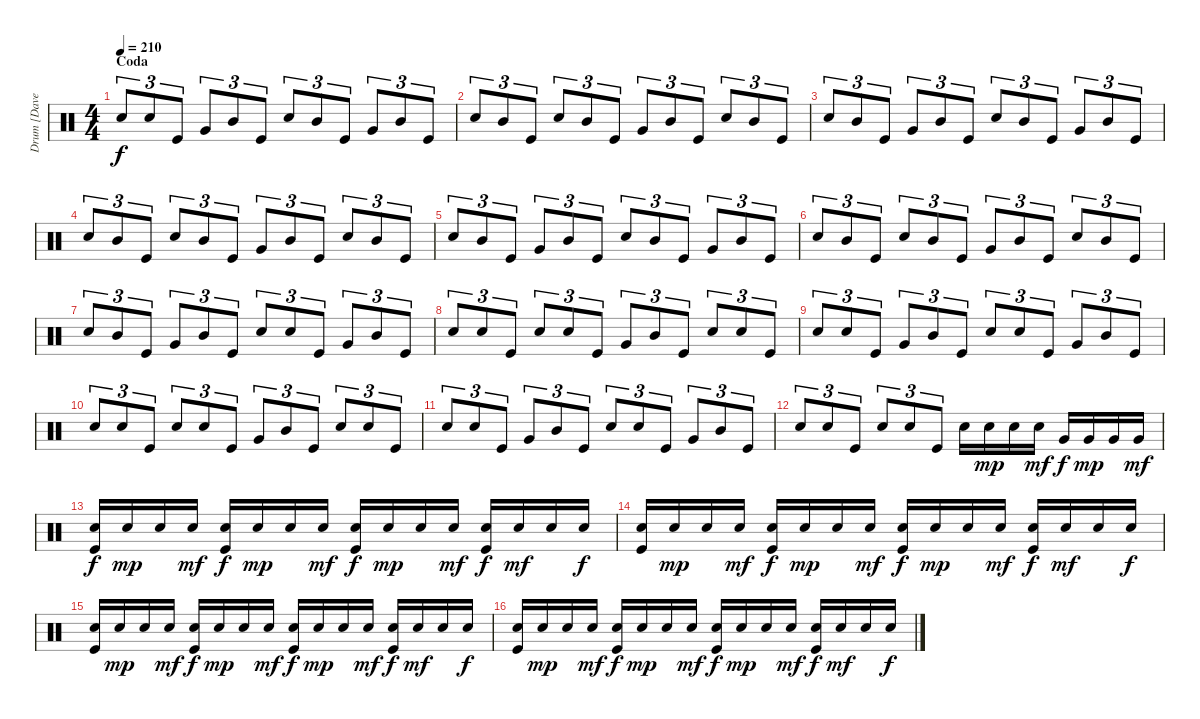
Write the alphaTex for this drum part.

\track ("Drum [Dave Grohl]" "Drum [Dave") {instrument percussion bank 84}
\staff {score}
\articulation defaults
\ts (4 4)
\section ("" "Coda")
\tempo 210
\clef neutral
\ks c "Electric Snare (hit)".8{tu (3 2) dy f} "Electric Snare (hit)".8{tu (3 2)} "Kick (hit)".8{tu (3 2)} "Very Low Tom (hit)".8{tu (3 2)} "Mid Tom (hit)".8{tu (3 2)} "Kick (hit)".8{tu (3 2)} "Electric Snare (hit)".8{tu (3 2)} "Mid Tom (hit)".8{tu (3 2)} "Kick (hit)".8{tu (3 2)} "Very Low Tom (hit)".8{tu (3 2)} "Mid Tom (hit)".8{tu (3 2)} "Kick (hit)".8{tu (3 2)}
|
"Electric Snare (hit)".8{tu (3 2)} "Mid Tom (hit)".8{tu (3 2)} "Kick (hit)".8{tu (3 2)} "Electric Snare (hit)".8{tu (3 2)} "Mid Tom (hit)".8{tu (3 2)} "Kick (hit)".8{tu (3 2)} "Very Low Tom (hit)".8{tu (3 2)} "Mid Tom (hit)".8{tu (3 2)} "Kick (hit)".8{tu (3 2)} "Electric Snare (hit)".8{tu (3 2)} "Mid Tom (hit)".8{tu (3 2)} "Kick (hit)".8{tu (3 2)} |
"Electric Snare (hit)".8{tu (3 2)} "Mid Tom (hit)".8{tu (3 2)} "Kick (hit)".8{tu (3 2)} "Very Low Tom (hit)".8{tu (3 2)} "Mid Tom (hit)".8{tu (3 2)} "Kick (hit)".8{tu (3 2)} "Electric Snare (hit)".8{tu (3 2)} "Mid Tom (hit)".8{tu (3 2)} "Kick (hit)".8{tu (3 2)} "Very Low Tom (hit)".8{tu (3 2)} "Mid Tom (hit)".8{tu (3 2)} "Kick (hit)".8{tu (3 2)} |
"Electric Snare (hit)".8{tu (3 2)} "Mid Tom (hit)".8{tu (3 2)} "Kick (hit)".8{tu (3 2)} "Electric Snare (hit)".8{tu (3 2)} "Mid Tom (hit)".8{tu (3 2)} "Kick (hit)".8{tu (3 2)} "Very Low Tom (hit)".8{tu (3 2)} "Mid Tom (hit)".8{tu (3 2)} "Kick (hit)".8{tu (3 2)} "Electric Snare (hit)".8{tu (3 2)} "Mid Tom (hit)".8{tu (3 2)} "Kick (hit)".8{tu (3 2)} |
"Electric Snare (hit)".8{tu (3 2)} "Mid Tom (hit)".8{tu (3 2)} "Kick (hit)".8{tu (3 2)} "Very Low Tom (hit)".8{tu (3 2)} "Mid Tom (hit)".8{tu (3 2)} "Kick (hit)".8{tu (3 2)} "Electric Snare (hit)".8{tu (3 2)} "Mid Tom (hit)".8{tu (3 2)} "Kick (hit)".8{tu (3 2)} "Very Low Tom (hit)".8{tu (3 2)} "Mid Tom (hit)".8{tu (3 2)} "Kick (hit)".8{tu (3 2)} |
"Electric Snare (hit)".8{tu (3 2)} "Mid Tom (hit)".8{tu (3 2)} "Kick (hit)".8{tu (3 2)} "Electric Snare (hit)".8{tu (3 2)} "Mid Tom (hit)".8{tu (3 2)} "Kick (hit)".8{tu (3 2)} "Very Low Tom (hit)".8{tu (3 2)} "Mid Tom (hit)".8{tu (3 2)} "Kick (hit)".8{tu (3 2)} "Electric Snare (hit)".8{tu (3 2)} "Mid Tom (hit)".8{tu (3 2)} "Kick (hit)".8{tu (3 2)} |
"Electric Snare (hit)".8{tu (3 2)} "Mid Tom (hit)".8{tu (3 2)} "Kick (hit)".8{tu (3 2)} "Very Low Tom (hit)".8{tu (3 2)} "Mid Tom (hit)".8{tu (3 2)} "Kick (hit)".8{tu (3 2)} "Electric Snare (hit)".8{tu (3 2)} "Electric Snare (hit)".8{tu (3 2)} "Kick (hit)".8{tu (3 2)} "Very Low Tom (hit)".8{tu (3 2)} "Mid Tom (hit)".8{tu (3 2)} "Kick (hit)".8{tu (3 2)} |
"Electric Snare (hit)".8{tu (3 2)} "Electric Snare (hit)".8{tu (3 2)} "Kick (hit)".8{tu (3 2)} "Electric Snare (hit)".8{tu (3 2)} "Electric Snare (hit)".8{tu (3 2)} "Kick (hit)".8{tu (3 2)} "Very Low Tom (hit)".8{tu (3 2)} "Mid Tom (hit)".8{tu (3 2)} "Kick (hit)".8{tu (3 2)} "Electric Snare (hit)".8{tu (3 2)} "Electric Snare (hit)".8{tu (3 2)} "Kick (hit)".8{tu (3 2)} |
"Electric Snare (hit)".8{tu (3 2)} "Electric Snare (hit)".8{tu (3 2)} "Kick (hit)".8{tu (3 2)} "Very Low Tom (hit)".8{tu (3 2)} "Mid Tom (hit)".8{tu (3 2)} "Kick (hit)".8{tu (3 2)} "Electric Snare (hit)".8{tu (3 2)} "Electric Snare (hit)".8{tu (3 2)} "Kick (hit)".8{tu (3 2)} "Very Low Tom (hit)".8{tu (3 2)} "Mid Tom (hit)".8{tu (3 2)} "Kick (hit)".8{tu (3 2)} |
"Electric Snare (hit)".8{tu (3 2)} "Electric Snare (hit)".8{tu (3 2)} "Kick (hit)".8{tu (3 2)} "Electric Snare (hit)".8{tu (3 2)} "Electric Snare (hit)".8{tu (3 2)} "Kick (hit)".8{tu (3 2)} "Very Low Tom (hit)".8{tu (3 2)} "Mid Tom (hit)".8{tu (3 2)} "Kick (hit)".8{tu (3 2)} "Electric Snare (hit)".8{tu (3 2)} "Electric Snare (hit)".8{tu (3 2)} "Kick (hit)".8{tu (3 2)} |
"Electric Snare (hit)".8{tu (3 2)} "Electric Snare (hit)".8{tu (3 2)} "Kick (hit)".8{tu (3 2)} "Very Low Tom (hit)".8{tu (3 2)} "Mid Tom (hit)".8{tu (3 2)} "Kick (hit)".8{tu (3 2)} "Electric Snare (hit)".8{tu (3 2)} "Electric Snare (hit)".8{tu (3 2)} "Kick (hit)".8{tu (3 2)} "Very Low Tom (hit)".8{tu (3 2)} "Mid Tom (hit)".8{tu (3 2)} "Kick (hit)".8{tu (3 2)} |
"Electric Snare (hit)".8{tu (3 2)} "Electric Snare (hit)".8{tu (3 2)} "Kick (hit)".8{tu (3 2)} "Electric Snare (hit)".8{tu (3 2)} "Electric Snare (hit)".8{tu (3 2)} "Kick (hit)".8{tu (3 2)} "Electric Snare (hit)".16 "Electric Snare (hit)".16{dy mp} "Electric Snare (hit)".16 "Electric Snare (hit)".16{dy mf} "Very Low Tom (hit)".16{dy f} "Very Low Tom (hit)".16{dy mp} "Very Low Tom (hit)".16 "Very Low Tom (hit)".16{dy mf} |
("Electric Snare (hit)" "Kick (hit)").16{dy f} "Electric Snare (hit)".16{dy mp} "Electric Snare (hit)".16 "Electric Snare (hit)".16{dy mf} ("Electric Snare (hit)" "Kick (hit)").16{dy f} "Electric Snare (hit)".16{dy mp} "Electric Snare (hit)".16 "Electric Snare (hit)".16{dy mf} ("Electric Snare (hit)" "Kick (hit)").16{dy f} "Electric Snare (hit)".16{dy mp} "Electric Snare (hit)".16 "Electric Snare (hit)".16{dy mf} ("Electric Snare (hit)" "Kick (hit)").16{dy f} "Electric Snare (hit)".16{dy mf} "Electric Snare (hit)".16 "Electric Snare (hit)".16{dy f} |
("Electric Snare (hit)" "Kick (hit)").16 "Electric Snare (hit)".16{dy mp} "Electric Snare (hit)".16 "Electric Snare (hit)".16{dy mf} ("Electric Snare (hit)" "Kick (hit)").16{dy f} "Electric Snare (hit)".16{dy mp} "Electric Snare (hit)".16 "Electric Snare (hit)".16{dy mf} ("Electric Snare (hit)" "Kick (hit)").16{dy f} "Electric Snare (hit)".16{dy mp} "Electric Snare (hit)".16 "Electric Snare (hit)".16{dy mf} ("Electric Snare (hit)" "Kick (hit)").16{dy f} "Electric Snare (hit)".16{dy mf} "Electric Snare (hit)".16 "Electric Snare (hit)".16{dy f} |
("Electric Snare (hit)" "Kick (hit)").16 "Electric Snare (hit)".16{dy mp} "Electric Snare (hit)".16 "Electric Snare (hit)".16{dy mf} ("Electric Snare (hit)" "Kick (hit)").16{dy f} "Electric Snare (hit)".16{dy mp} "Electric Snare (hit)".16 "Electric Snare (hit)".16{dy mf} ("Electric Snare (hit)" "Kick (hit)").16{dy f} "Electric Snare (hit)".16{dy mp} "Electric Snare (hit)".16 "Electric Snare (hit)".16{dy mf} ("Electric Snare (hit)" "Kick (hit)").16{dy f} "Electric Snare (hit)".16{dy mf} "Electric Snare (hit)".16 "Electric Snare (hit)".16{dy f} |
("Electric Snare (hit)" "Kick (hit)").16 "Electric Snare (hit)".16{dy mp} "Electric Snare (hit)".16 "Electric Snare (hit)".16{dy mf} ("Electric Snare (hit)" "Kick (hit)").16{dy f} "Electric Snare (hit)".16{dy mp} "Electric Snare (hit)".16 "Electric Snare (hit)".16{dy mf} ("Electric Snare (hit)" "Kick (hit)").16{dy f} "Electric Snare (hit)".16{dy mp} "Electric Snare (hit)".16 "Electric Snare (hit)".16{dy mf} ("Electric Snare (hit)" "Kick (hit)").16{dy f} "Electric Snare (hit)".16{dy mf} "Electric Snare (hit)".16 "Electric Snare (hit)".16{dy f}
